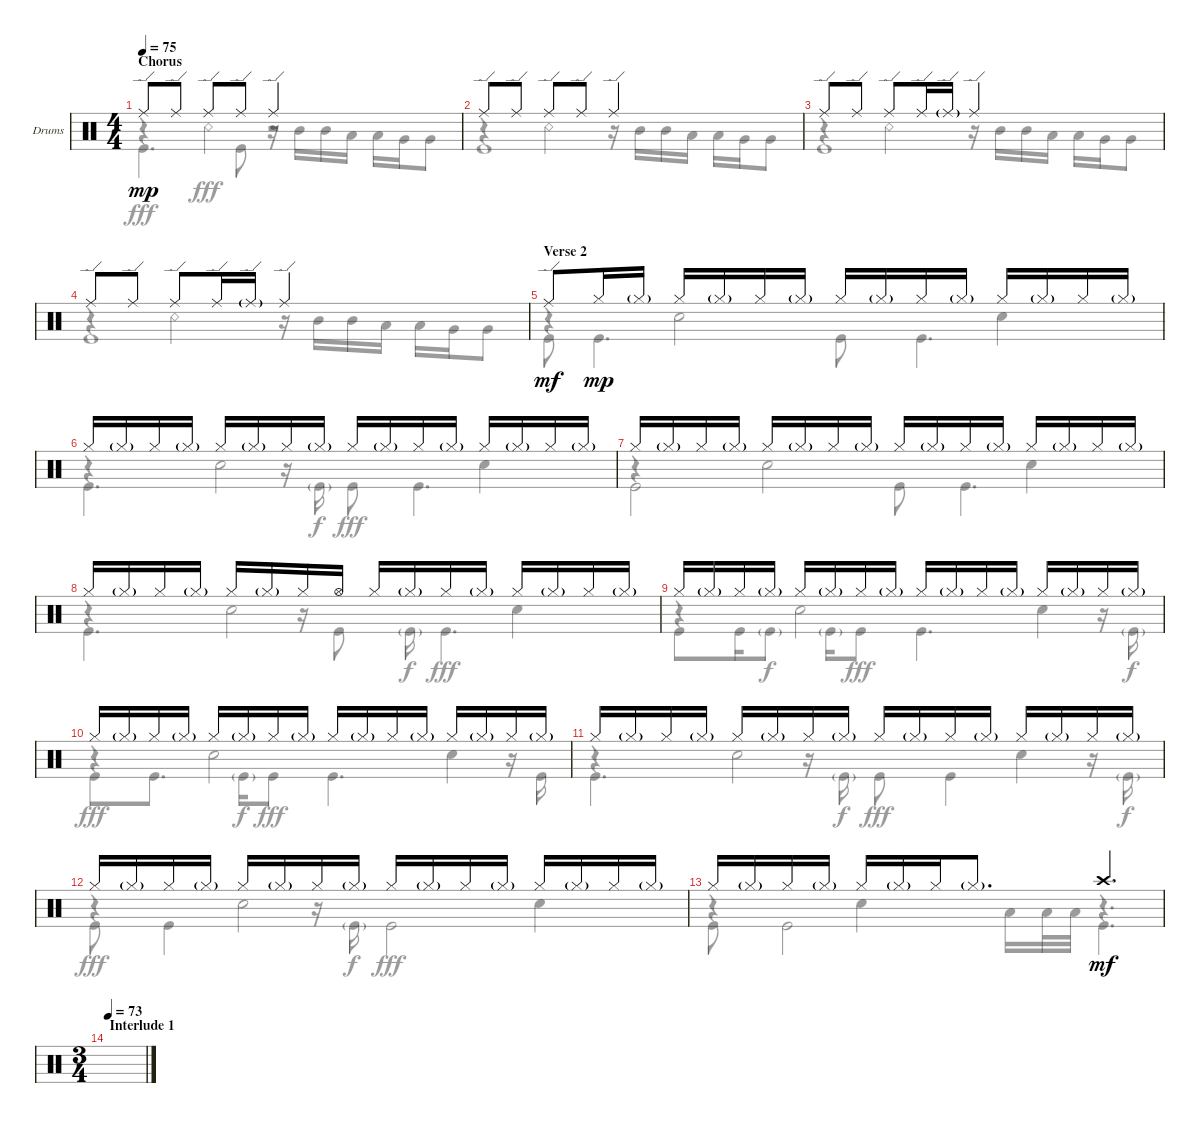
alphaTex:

\defaultSystemsLayout 4
\bracketExtendMode groupsimilarinstruments
\firstSystemTrackNameOrientation horizontal
\otherSystemsTrackNameOrientation horizontal
\track ("Drumkit" "Drums") {instrument percussion}
\staff {score}
\articulation defaults
\voice
\ts (4 4)
\section ("" "Chorus")
\tempo 75
\clef neutral
\ks c "Ride (edge)".8{dy mp} "Ride (edge)".8 "Ride (edge)".8 "Ride (edge)".8 "Ride (edge)".2
|
"Ride (edge)".8 "Ride (edge)".8 "Ride (edge)".8 "Ride (edge)".8 "Ride (edge)".2 |
"Ride (edge)".8 "Ride (edge)".8 "Ride (edge)".8 "Ride (edge)".16 "Ride (edge)"{g}.16 "Ride (edge)".2 |
"Ride (edge)".8 "Ride (edge)".8 "Ride (edge)".8 "Ride (edge)".16 "Ride (edge)"{g}.16 "Ride (edge)".2 |
\section ("" "Verse 2")
"Ride (edge)".8{dy mf} "Hi-Hat (closed)".16{dy mp} "Hi-Hat (closed)"{g}.16 "Hi-Hat (closed)".16 "Hi-Hat (closed)"{g}.16 "Hi-Hat (closed)".16 "Hi-Hat (closed)"{g}.16 "Hi-Hat (closed)".16 "Hi-Hat (closed)"{g}.16 "Hi-Hat (closed)".16 "Hi-Hat (closed)"{g}.16 "Hi-Hat (closed)".16 "Hi-Hat (closed)"{g}.16 "Hi-Hat (closed)".16 "Hi-Hat (closed)"{g}.16 |
"Hi-Hat (closed)".16 "Hi-Hat (closed)"{g}.16 "Hi-Hat (closed)".16 "Hi-Hat (closed)"{g}.16 "Hi-Hat (closed)".16 "Hi-Hat (closed)"{g}.16 "Hi-Hat (closed)".16 "Hi-Hat (closed)"{g}.16 "Hi-Hat (closed)".16 "Hi-Hat (closed)"{g}.16 "Hi-Hat (closed)".16 "Hi-Hat (closed)"{g}.16 "Hi-Hat (closed)".16 "Hi-Hat (closed)"{g}.16 "Hi-Hat (closed)".16 "Hi-Hat (closed)"{g}.16 |
"Hi-Hat (closed)".16 "Hi-Hat (closed)"{g}.16 "Hi-Hat (closed)".16 "Hi-Hat (closed)"{g}.16 "Hi-Hat (closed)".16 "Hi-Hat (closed)"{g}.16 "Hi-Hat (closed)".16 "Hi-Hat (closed)"{g}.16 "Hi-Hat (closed)".16 "Hi-Hat (closed)"{g}.16 "Hi-Hat (closed)".16 "Hi-Hat (closed)"{g}.16 "Hi-Hat (closed)".16 "Hi-Hat (closed)"{g}.16 "Hi-Hat (closed)".16 "Hi-Hat (closed)"{g}.16 |
"Hi-Hat (closed)".16 "Hi-Hat (closed)"{g}.16 "Hi-Hat (closed)".16 "Hi-Hat (closed)"{g}.16 "Hi-Hat (closed)".16 "Hi-Hat (closed)"{g}.16 "Hi-Hat (closed)".16 "Hi-Hat (open)".16 "Hi-Hat (closed)".16 "Hi-Hat (closed)"{g}.16 "Hi-Hat (closed)".16 "Hi-Hat (closed)"{g}.16 "Hi-Hat (closed)".16 "Hi-Hat (closed)"{g}.16 "Hi-Hat (closed)".16 "Hi-Hat (closed)"{g}.16 |
"Hi-Hat (closed)".16 "Hi-Hat (closed)"{g}.16 "Hi-Hat (closed)".16 "Hi-Hat (closed)"{g}.16 "Hi-Hat (closed)".16 "Hi-Hat (closed)"{g}.16 "Hi-Hat (closed)".16 "Hi-Hat (closed)"{g}.16 "Hi-Hat (closed)".16 "Hi-Hat (closed)"{g}.16 "Hi-Hat (closed)".16 "Hi-Hat (closed)"{g}.16 "Hi-Hat (closed)".16 "Hi-Hat (closed)"{g}.16 "Hi-Hat (closed)".16 "Hi-Hat (closed)"{g}.16 |
"Hi-Hat (closed)".16 "Hi-Hat (closed)"{g}.16 "Hi-Hat (closed)".16 "Hi-Hat (closed)"{g}.16 "Hi-Hat (closed)".16 "Hi-Hat (closed)"{g}.16 "Hi-Hat (closed)".16 "Hi-Hat (closed)"{g}.16 "Hi-Hat (closed)".16 "Hi-Hat (closed)"{g}.16 "Hi-Hat (closed)".16 "Hi-Hat (closed)"{g}.16 "Hi-Hat (closed)".16 "Hi-Hat (closed)"{g}.16 "Hi-Hat (closed)".16 "Hi-Hat (closed)"{g}.16 |
"Hi-Hat (closed)".16 "Hi-Hat (closed)"{g}.16 "Hi-Hat (closed)".16 "Hi-Hat (closed)"{g}.16 "Hi-Hat (closed)".16 "Hi-Hat (closed)"{g}.16 "Hi-Hat (closed)".16 "Hi-Hat (closed)"{g}.16 "Hi-Hat (closed)".16 "Hi-Hat (closed)"{g}.16 "Hi-Hat (closed)".16 "Hi-Hat (closed)"{g}.16 "Hi-Hat (closed)".16 "Hi-Hat (closed)"{g}.16 "Hi-Hat (closed)".16 "Hi-Hat (closed)"{g}.16 |
"Hi-Hat (closed)".16 "Hi-Hat (closed)"{g}.16 "Hi-Hat (closed)".16 "Hi-Hat (closed)"{g}.16 "Hi-Hat (closed)".16 "Hi-Hat (closed)"{g}.16 "Hi-Hat (closed)".16 "Hi-Hat (closed)"{g}.16 "Hi-Hat (closed)".16 "Hi-Hat (closed)"{g}.16 "Hi-Hat (closed)".16 "Hi-Hat (closed)"{g}.16 "Hi-Hat (closed)".16 "Hi-Hat (closed)"{g}.16 "Hi-Hat (closed)".16 "Hi-Hat (closed)"{g}.16 |
"Hi-Hat (closed)".16 "Hi-Hat (closed)"{g}.16 "Hi-Hat (closed)".16 "Hi-Hat (closed)"{g}.16 "Hi-Hat (closed)".16 "Hi-Hat (closed)"{g}.16 "Hi-Hat (closed)".16 "Hi-Hat (closed)"{g}.8{d} "Crash high (hit)".4{d dy mf} |
\ts (3 4)
\section ("" "Interlude 1")
\tempo 73
|
|
\voice
\clef neutral
\ottava regular
\simile none
\ks c
r.4{dy fff} "Snare (rim shot)".4 r.16 "Mid Tom (hit)".16 "Mid Tom (hit)".16 "Low Tom (hit)".16 "Low Tom (hit)".16 "Very Low Tom (hit)".16 "Very Low Tom (hit)".8 |
r.4 "Snare (rim shot)".4 r.16 "Mid Tom (hit)".16 "Mid Tom (hit)".16 "Low Tom (hit)".16 "Low Tom (hit)".16 "Very Low Tom (hit)".16 "Very Low Tom (hit)".8 |
r.4 "Snare (rim shot)".4 r.16 "Mid Tom (hit)".16 "Mid Tom (hit)".16 "Low Tom (hit)".16 "Low Tom (hit)".16 "Very Low Tom (hit)".16 "Very Low Tom (hit)".8 |
r.4 "Snare (rim shot)".4 r.16 "Mid Tom (hit)".16 "Mid Tom (hit)".16 "Low Tom (hit)".16 "Low Tom (hit)".16 "Very Low Tom (hit)".16 "Very Low Tom (hit)".8 |
r.4 "Snare (hit) 2".2 "Snare (hit) 2".4 |
r.4 "Snare (hit) 2".2 "Snare (hit) 2".4 |
r.4 "Snare (hit) 2".2 "Snare (hit) 2".4 |
r.4 "Snare (hit) 2".2 "Snare (hit) 2".4 |
r.4 "Snare (hit) 2".2 "Snare (hit) 2".4 |
r.4 "Snare (hit) 2".2 "Snare (hit) 2".4 |
r.4 "Snare (hit) 2".2 "Snare (hit) 2".4 |
r.4 "Snare (hit) 2".2 "Snare (hit) 2".4 |
r.4 "Snare (hit) 2".4 "Low Tom (hit)".16 "Low Tom (hit)".32 "Low Tom (hit)".32 r.4{d} |
|
|
\voice
\clef neutral
\ottava regular
\simile none
\ks c "Kick (hit)".4{d dy fff} "Kick (hit)".8
r.2 |
"Kick (hit)".1 |
"Kick (hit)".1 |
"Kick (hit)".1 |
"Kick (hit)".8 "Kick (hit)".4{d} "Kick (hit)".8 "Kick (hit)".4{d} |
"Kick (hit)".4{d} r.16 "Kick (hit)"{g}.16{dy f} "Kick (hit)".8{dy fff} "Kick (hit)".4{d} |
"Kick (hit)".2 "Kick (hit)".8 "Kick (hit)".4{d} |
"Kick (hit)".4{d} r.16 "Kick (hit)".8 "Kick (hit)"{g}.16{dy f} "Kick (hit)".4{d dy fff} |
"Kick (hit)".8 "Kick (hit)".16 "Kick (hit)"{g}.8{dy f} "Kick (hit)"{g}.16 "Kick (hit)".8{dy fff} "Kick (hit)".4{d} r.16 "Kick (hit)"{g}.16{dy f} |
"Kick (hit)".8{dy fff} "Kick (hit)".8{d} "Kick (hit)"{g}.16{dy f} "Kick (hit)".8{dy fff} "Kick (hit)".4{d} r.16 "Kick (hit)".16 |
"Kick (hit)".4{d} r.16 "Kick (hit)"{g}.16{dy f} "Kick (hit)".8{dy fff} "Kick (hit)".4 r.16 "Kick (hit)"{g}.16{dy f} |
"Kick (hit)".8{dy fff} "Kick (hit)".4 r.16 "Kick (hit)"{g}.16{dy f} "Kick (hit)".2{dy fff} |
"Kick (hit)".8 "Kick (hit)".2 "Kick (hit)".4{d} |
|
|
